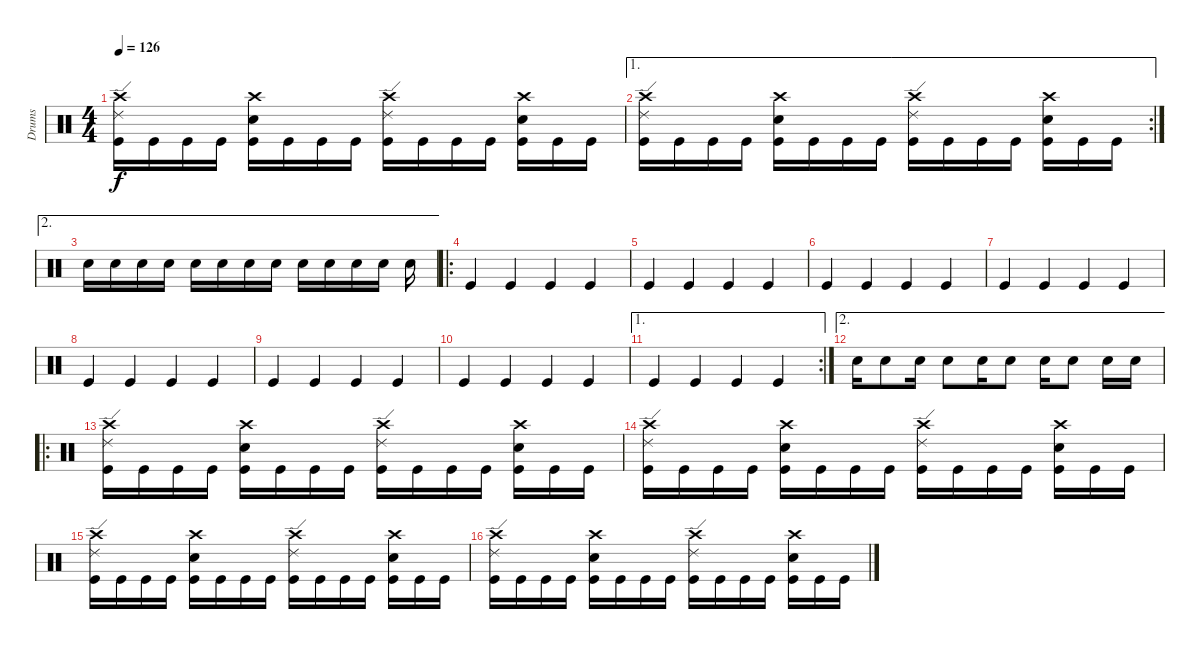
\track ("Drums" "Drums") {instrument percussion}
\staff {score}
\articulation defaults
\ts (4 4)
\tempo 126
\clef neutral
\ks c
("Crash high (hit)" "Ride (edge) 2" "Kick (hit)").16{dy f} "Kick (hit)".16 "Kick (hit)".16 "Kick (hit)".16 ("Crash high (hit)" "Electric Snare (hit)" "Kick (hit)").16 "Kick (hit)".16 "Kick (hit)".16 "Kick (hit)".16 ("Crash high (hit)" "Ride (edge) 2" "Kick (hit)").16 "Kick (hit)".16 "Kick (hit)".16 "Kick (hit)".16 ("Crash high (hit)" "Electric Snare (hit)" "Kick (hit)").16 "Kick (hit)".16 "Kick (hit)".16 |
\ae 1
\rc 2
("Crash high (hit)" "Ride (edge) 2" "Kick (hit)").16 "Kick (hit)".16 "Kick (hit)".16 "Kick (hit)".16 ("Crash high (hit)" "Electric Snare (hit)" "Kick (hit)").16 "Kick (hit)".16 "Kick (hit)".16 "Kick (hit)".16 ("Crash high (hit)" "Ride (edge) 2" "Kick (hit)").16 "Kick (hit)".16 "Kick (hit)".16 "Kick (hit)".16 ("Crash high (hit)" "Electric Snare (hit)" "Kick (hit)").16 "Kick (hit)".16 "Kick (hit)".16 |
\ae 2 "Electric Snare (hit)".16 "Electric Snare (hit)".16 "Electric Snare (hit)".16 "Electric Snare (hit)".16 "Electric Snare (hit)".16 "Electric Snare (hit)".16 "Electric Snare (hit)".16 "Electric Snare (hit)".16 "Electric Snare (hit)".16 "Electric Snare (hit)".16 "Electric Snare (hit)".16 "Electric Snare (hit)".16 "Electric Snare (hit)".16
|
\ro "Kick (hit)".4 "Kick (hit)".4 "Kick (hit)".4 "Kick (hit)".4
|
"Kick (hit)".4 "Kick (hit)".4 "Kick (hit)".4 "Kick (hit)".4 |
"Kick (hit)".4 "Kick (hit)".4 "Kick (hit)".4 "Kick (hit)".4 |
"Kick (hit)".4 "Kick (hit)".4 "Kick (hit)".4 "Kick (hit)".4 |
"Kick (hit)".4 "Kick (hit)".4 "Kick (hit)".4 "Kick (hit)".4 |
"Kick (hit)".4 "Kick (hit)".4 "Kick (hit)".4 "Kick (hit)".4 |
"Kick (hit)".4 "Kick (hit)".4 "Kick (hit)".4 "Kick (hit)".4 |
\ae 1
\rc 2 "Kick (hit)".4 "Kick (hit)".4 "Kick (hit)".4 "Kick (hit)".4
|
\ae 2 "Electric Snare (hit)".16 "Electric Snare (hit)".8 "Electric Snare (hit)".16 "Electric Snare (hit)".8 "Electric Snare (hit)".16 "Electric Snare (hit)".8 "Electric Snare (hit)".16 "Electric Snare (hit)".8 "Electric Snare (hit)".16 "Electric Snare (hit)".16
|
\ro
("Crash high (hit)" "Ride (edge) 2" "Kick (hit)").16 "Kick (hit)".16 "Kick (hit)".16 "Kick (hit)".16 ("Crash high (hit)" "Electric Snare (hit)" "Kick (hit)").16 "Kick (hit)".16 "Kick (hit)".16 "Kick (hit)".16 ("Crash high (hit)" "Ride (edge) 2" "Kick (hit)").16 "Kick (hit)".16 "Kick (hit)".16 "Kick (hit)".16 ("Crash high (hit)" "Electric Snare (hit)" "Kick (hit)").16 "Kick (hit)".16 "Kick (hit)".16 |
("Crash high (hit)" "Ride (edge) 2" "Kick (hit)").16 "Kick (hit)".16 "Kick (hit)".16 "Kick (hit)".16 ("Crash high (hit)" "Electric Snare (hit)" "Kick (hit)").16 "Kick (hit)".16 "Kick (hit)".16 "Kick (hit)".16 ("Crash high (hit)" "Ride (edge) 2" "Kick (hit)").16 "Kick (hit)".16 "Kick (hit)".16 "Kick (hit)".16 ("Crash high (hit)" "Electric Snare (hit)" "Kick (hit)").16 "Kick (hit)".16 "Kick (hit)".16 |
("Crash high (hit)" "Ride (edge) 2" "Kick (hit)").16 "Kick (hit)".16 "Kick (hit)".16 "Kick (hit)".16 ("Crash high (hit)" "Electric Snare (hit)" "Kick (hit)").16 "Kick (hit)".16 "Kick (hit)".16 "Kick (hit)".16 ("Crash high (hit)" "Ride (edge) 2" "Kick (hit)").16 "Kick (hit)".16 "Kick (hit)".16 "Kick (hit)".16 ("Crash high (hit)" "Electric Snare (hit)" "Kick (hit)").16 "Kick (hit)".16 "Kick (hit)".16 |
("Crash high (hit)" "Ride (edge) 2" "Kick (hit)").16 "Kick (hit)".16 "Kick (hit)".16 "Kick (hit)".16 ("Crash high (hit)" "Electric Snare (hit)" "Kick (hit)").16 "Kick (hit)".16 "Kick (hit)".16 "Kick (hit)".16 ("Crash high (hit)" "Ride (edge) 2" "Kick (hit)").16 "Kick (hit)".16 "Kick (hit)".16 "Kick (hit)".16 ("Crash high (hit)" "Electric Snare (hit)" "Kick (hit)").16 "Kick (hit)".16 "Kick (hit)".16
